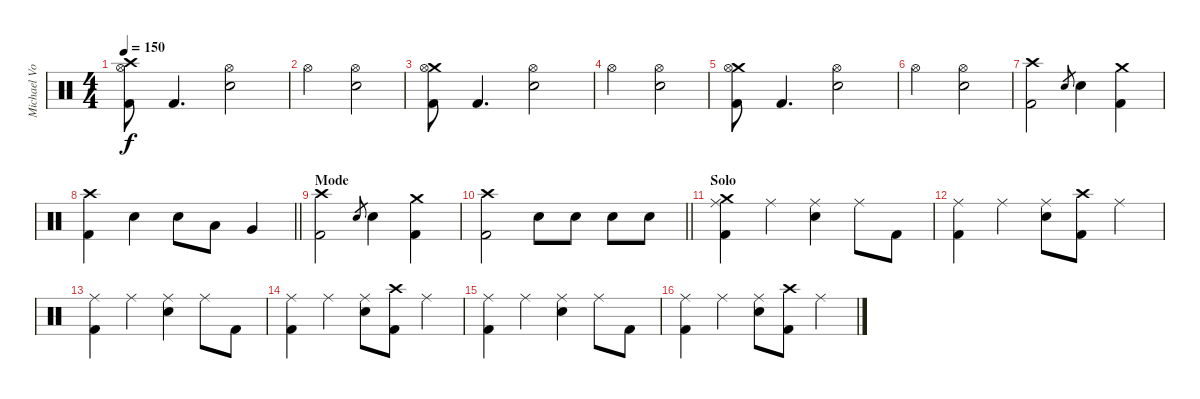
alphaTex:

\track ("Michael Von Knorring" "Michael Vo") {instrument percussion}
\staff {score}
\articulation defaults
\ts (4 4)
\tempo 150
\clef neutral
\ks c
("Crash high (hit)" "Hi-Hat (open)" "Kick (hit) 2").8{dy f} "Kick (hit) 2".4{d} ("Hi-Hat (open)" "Snare (hit) 2").2 |
"Hi-Hat (open)".2 ("Hi-Hat (open)" "Snare (hit) 2").2 |
("Crash medium (hit)" "Hi-Hat (open)" "Kick (hit) 2").8 "Kick (hit) 2".4{d} ("Hi-Hat (open)" "Snare (hit) 2").2 |
"Hi-Hat (open)".2 ("Hi-Hat (open)" "Snare (hit) 2").2 |
("Crash medium (hit)" "Hi-Hat (open)" "Kick (hit) 2").8 "Kick (hit) 2".4{d} ("Hi-Hat (open)" "Snare (hit) 2").2 |
"Hi-Hat (open)".2 ("Hi-Hat (open)" "Snare (hit) 2").2 |
("Crash high (hit)" "Kick (hit) 2").2 "Snare (hit) 2".8{gr} "Snare (hit) 2".4 ("Crash medium (hit)" "Kick (hit) 2").4 |
\barLineRight lightlight
("Crash high (hit)" "Kick (hit) 2").4 "Snare (hit) 2".4 "Snare (hit) 2".8 "Low Tom (hit)".8 "Very Low Tom (hit)".4 |
\section ("" "Mode")
("Crash high (hit)" "Kick (hit) 2").2 "Snare (hit) 2".8{gr} "Snare (hit) 2".4 ("Crash medium (hit)" "Kick (hit) 2").4 |
\barLineRight lightlight
("Crash high (hit)" "Kick (hit) 2").2 "Snare (hit) 2".8 "Snare (hit) 2".8 "Snare (hit) 2".8 "Snare (hit) 2".8 |
\section ("" "Solo")
("Crash medium (hit)" "Ride (middle)" "Kick (hit) 2").4 "Ride (middle)".4 ("Ride (middle)" "Snare (hit) 2").4 "Ride (middle)".8 "Kick (hit) 2".8 |
("Ride (middle)" "Kick (hit) 2").4 "Ride (middle)".4 ("Ride (middle)" "Snare (hit) 2").8 ("Crash high (hit)" "Kick (hit) 2").8 "Ride (middle)".4 |
("Ride (middle)" "Kick (hit) 2").4 "Ride (middle)".4 ("Ride (middle)" "Snare (hit) 2").4 "Ride (middle)".8 "Kick (hit) 2".8 |
("Ride (middle)" "Kick (hit) 2").4 "Ride (middle)".4 ("Ride (middle)" "Snare (hit) 2").8 ("Crash high (hit)" "Kick (hit) 2").8 "Ride (middle)".4 |
("Ride (middle)" "Kick (hit) 2").4 "Ride (middle)".4 ("Ride (middle)" "Snare (hit) 2").4 "Ride (middle)".8 "Kick (hit) 2".8 |
("Ride (middle)" "Kick (hit) 2").4 "Ride (middle)".4 ("Ride (middle)" "Snare (hit) 2").8 ("Crash high (hit)" "Kick (hit) 2").8 "Ride (middle)".4
